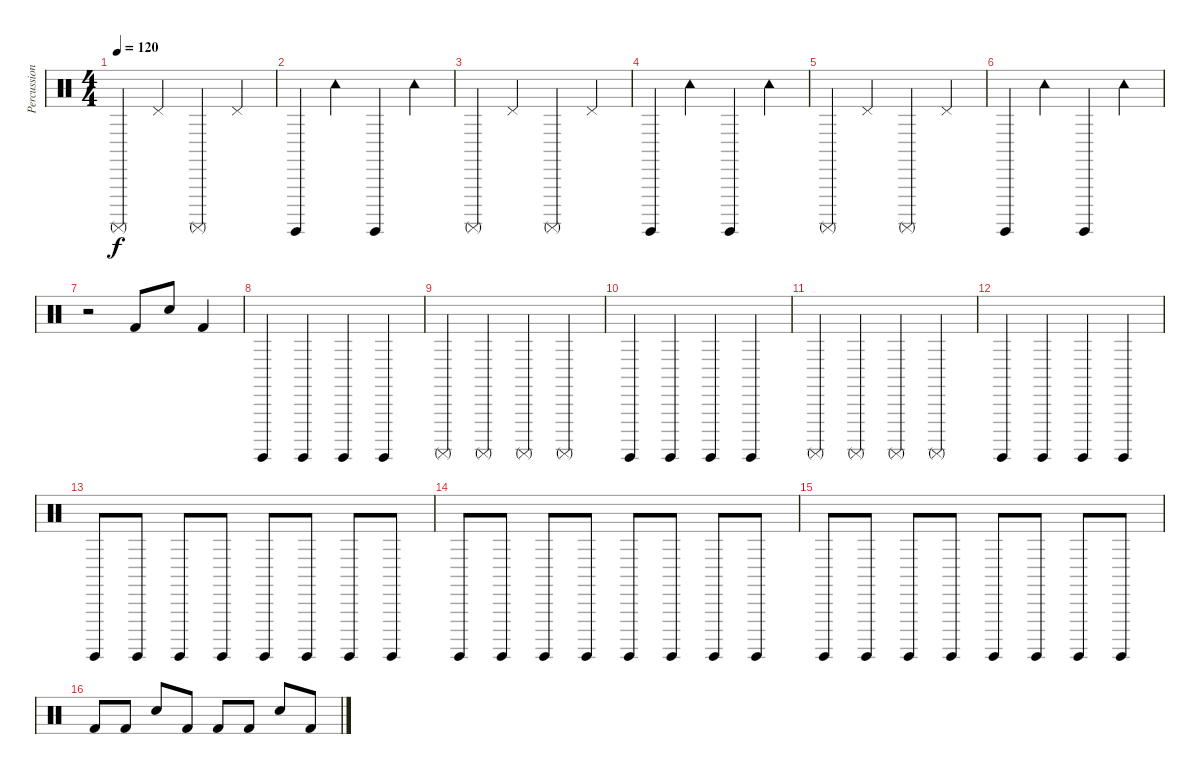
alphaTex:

\track ("Percussion" "Percussion") {instrument percussion}
\staff {score}
\articulation defaults
\ts (4 4)
\tempo 120
\clef neutral
\ks c "Surdo (mute)".4{dy f} "Pedal Hi-Hat (hit)".4 "Surdo (mute)".4 "Pedal Hi-Hat (hit)".4
|
"Surdo (hit)".4 "Tambourine (hit)".4 "Surdo (hit)".4 "Tambourine (hit)".4 |
"Surdo (mute)".4 "Pedal Hi-Hat (hit)".4 "Surdo (mute)".4 "Pedal Hi-Hat (hit)".4 |
"Surdo (hit)".4 "Tambourine (hit)".4 "Surdo (hit)".4 "Tambourine (hit)".4 |
"Surdo (mute)".4 "Pedal Hi-Hat (hit)".4 "Surdo (mute)".4 "Pedal Hi-Hat (hit)".4 |
"Surdo (hit)".4 "Tambourine (hit)".4 "Surdo (hit)".4 "Tambourine (hit)".4 |
r.2 "Kick (hit) 2".8 "Electric Snare (hit)".8 "Kick (hit) 2".4 |
"Surdo (hit)".4 "Surdo (hit)".4 "Surdo (hit)".4 "Surdo (hit)".4 |
"Surdo (mute)".4 "Surdo (mute)".4 "Surdo (mute)".4 "Surdo (mute)".4 |
"Surdo (hit)".4 "Surdo (hit)".4 "Surdo (hit)".4 "Surdo (hit)".4 |
"Surdo (mute)".4 "Surdo (mute)".4 "Surdo (mute)".4 "Surdo (mute)".4 |
"Surdo (hit)".4 "Surdo (hit)".4 "Surdo (hit)".4 "Surdo (hit)".4 |
"Surdo (hit)".8 "Surdo (hit)".8 "Surdo (hit)".8 "Surdo (hit)".8 "Surdo (hit)".8 "Surdo (hit)".8 "Surdo (hit)".8 "Surdo (hit)".8 |
"Surdo (hit)".8 "Surdo (hit)".8 "Surdo (hit)".8 "Surdo (hit)".8 "Surdo (hit)".8 "Surdo (hit)".8 "Surdo (hit)".8 "Surdo (hit)".8 |
"Surdo (hit)".8 "Surdo (hit)".8 "Surdo (hit)".8 "Surdo (hit)".8 "Surdo (hit)".8 "Surdo (hit)".8 "Surdo (hit)".8 "Surdo (hit)".8 |
"Kick (hit) 2".8 "Kick (hit) 2".8 "Electric Snare (hit)".8 "Kick (hit) 2".8 "Kick (hit) 2".8 "Kick (hit) 2".8 "Snare (hit) 2".8 "Kick (hit) 2".8
